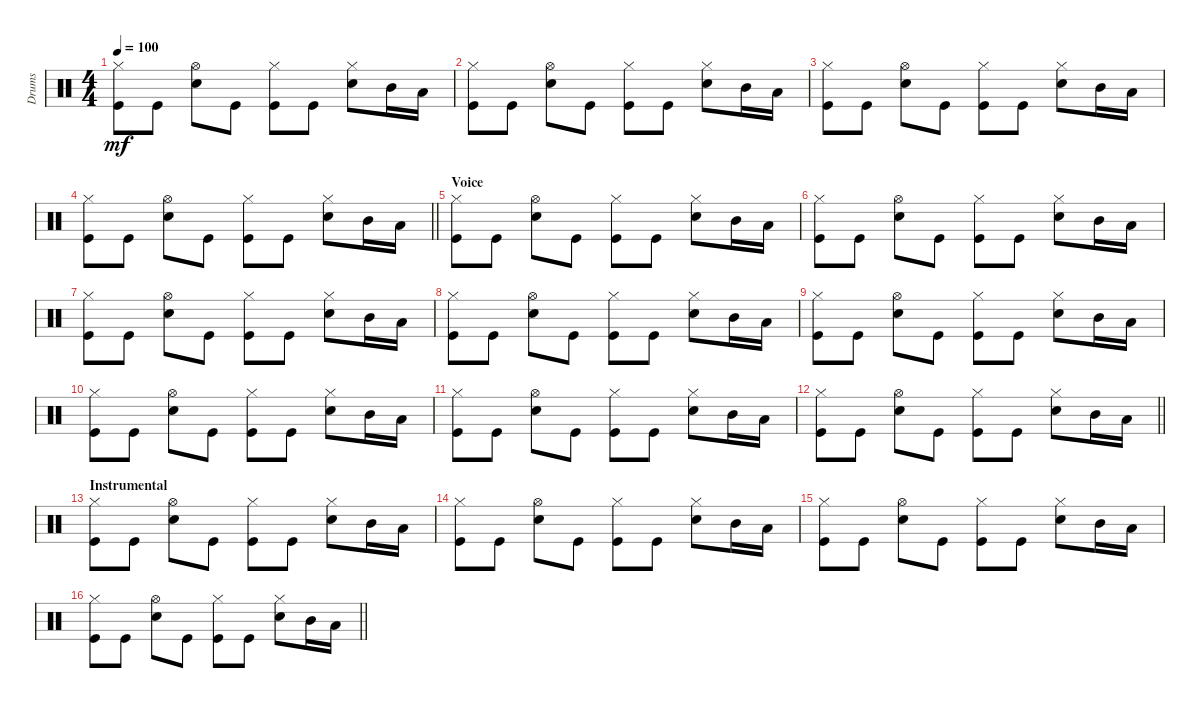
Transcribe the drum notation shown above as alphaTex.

\track ("Drums" "Drums") {instrument percussion}
\staff {score}
\articulation defaults
\ts (4 4)
\tempo 100
\clef neutral
\ks c
("Kick (hit)" "Hi-Hat (closed)").8{dy mf} "Kick (hit)".8 ("Electric Snare (hit)" "Hi-Hat (open)").8 "Kick (hit)".8 ("Kick (hit)" "Hi-Hat (closed)").8 "Kick (hit)".8 ("Electric Snare (hit)" "Hi-Hat (closed)").8 "Mid Tom (hit)".16 "Low Tom (hit)".16 |
("Kick (hit)" "Hi-Hat (closed)").8 "Kick (hit)".8 ("Electric Snare (hit)" "Hi-Hat (open)").8 "Kick (hit)".8 ("Kick (hit)" "Hi-Hat (closed)").8 "Kick (hit)".8 ("Electric Snare (hit)" "Hi-Hat (closed)").8 "Mid Tom (hit)".16 "Low Tom (hit)".16 |
("Kick (hit)" "Hi-Hat (closed)").8 "Kick (hit)".8 ("Electric Snare (hit)" "Hi-Hat (open)").8 "Kick (hit)".8 ("Kick (hit)" "Hi-Hat (closed)").8 "Kick (hit)".8 ("Electric Snare (hit)" "Hi-Hat (closed)").8 "Mid Tom (hit)".16 "Low Tom (hit)".16 |
\barLineRight lightlight
("Kick (hit)" "Hi-Hat (closed)").8 "Kick (hit)".8 ("Electric Snare (hit)" "Hi-Hat (open)").8 "Kick (hit)".8 ("Kick (hit)" "Hi-Hat (closed)").8 "Kick (hit)".8 ("Electric Snare (hit)" "Hi-Hat (closed)").8 "Mid Tom (hit)".16 "Low Tom (hit)".16 |
\section ("" "Voice")
("Kick (hit)" "Hi-Hat (closed)").8 "Kick (hit)".8 ("Electric Snare (hit)" "Hi-Hat (open)").8 "Kick (hit)".8 ("Kick (hit)" "Hi-Hat (closed)").8 "Kick (hit)".8 ("Electric Snare (hit)" "Hi-Hat (closed)").8 "Mid Tom (hit)".16 "Low Tom (hit)".16 |
("Kick (hit)" "Hi-Hat (closed)").8 "Kick (hit)".8 ("Electric Snare (hit)" "Hi-Hat (open)").8 "Kick (hit)".8 ("Kick (hit)" "Hi-Hat (closed)").8 "Kick (hit)".8 ("Electric Snare (hit)" "Hi-Hat (closed)").8 "Mid Tom (hit)".16 "Low Tom (hit)".16 |
("Kick (hit)" "Hi-Hat (closed)").8 "Kick (hit)".8 ("Electric Snare (hit)" "Hi-Hat (open)").8 "Kick (hit)".8 ("Kick (hit)" "Hi-Hat (closed)").8 "Kick (hit)".8 ("Electric Snare (hit)" "Hi-Hat (closed)").8 "Mid Tom (hit)".16 "Low Tom (hit)".16 |
("Kick (hit)" "Hi-Hat (closed)").8 "Kick (hit)".8 ("Electric Snare (hit)" "Hi-Hat (open)").8 "Kick (hit)".8 ("Kick (hit)" "Hi-Hat (closed)").8 "Kick (hit)".8 ("Electric Snare (hit)" "Hi-Hat (closed)").8 "Mid Tom (hit)".16 "Low Tom (hit)".16 |
("Kick (hit)" "Hi-Hat (closed)").8 "Kick (hit)".8 ("Electric Snare (hit)" "Hi-Hat (open)").8 "Kick (hit)".8 ("Kick (hit)" "Hi-Hat (closed)").8 "Kick (hit)".8 ("Electric Snare (hit)" "Hi-Hat (closed)").8 "Mid Tom (hit)".16 "Low Tom (hit)".16 |
("Kick (hit)" "Hi-Hat (closed)").8 "Kick (hit)".8 ("Electric Snare (hit)" "Hi-Hat (open)").8 "Kick (hit)".8 ("Kick (hit)" "Hi-Hat (closed)").8 "Kick (hit)".8 ("Electric Snare (hit)" "Hi-Hat (closed)").8 "Mid Tom (hit)".16 "Low Tom (hit)".16 |
("Kick (hit)" "Hi-Hat (closed)").8 "Kick (hit)".8 ("Electric Snare (hit)" "Hi-Hat (open)").8 "Kick (hit)".8 ("Kick (hit)" "Hi-Hat (closed)").8 "Kick (hit)".8 ("Electric Snare (hit)" "Hi-Hat (closed)").8 "Mid Tom (hit)".16 "Low Tom (hit)".16 |
\barLineRight lightlight
("Kick (hit)" "Hi-Hat (closed)").8 "Kick (hit)".8 ("Electric Snare (hit)" "Hi-Hat (open)").8 "Kick (hit)".8 ("Kick (hit)" "Hi-Hat (closed)").8 "Kick (hit)".8 ("Electric Snare (hit)" "Hi-Hat (closed)").8 "Mid Tom (hit)".16 "Low Tom (hit)".16 |
\section ("" "Instrumental")
("Kick (hit)" "Hi-Hat (closed)").8 "Kick (hit)".8 ("Electric Snare (hit)" "Hi-Hat (open)").8 "Kick (hit)".8 ("Kick (hit)" "Hi-Hat (closed)").8 "Kick (hit)".8 ("Electric Snare (hit)" "Hi-Hat (closed)").8 "Mid Tom (hit)".16 "Low Tom (hit)".16 |
("Kick (hit)" "Hi-Hat (closed)").8 "Kick (hit)".8 ("Electric Snare (hit)" "Hi-Hat (open)").8 "Kick (hit)".8 ("Kick (hit)" "Hi-Hat (closed)").8 "Kick (hit)".8 ("Electric Snare (hit)" "Hi-Hat (closed)").8 "Mid Tom (hit)".16 "Low Tom (hit)".16 |
("Kick (hit)" "Hi-Hat (closed)").8 "Kick (hit)".8 ("Electric Snare (hit)" "Hi-Hat (open)").8 "Kick (hit)".8 ("Kick (hit)" "Hi-Hat (closed)").8 "Kick (hit)".8 ("Electric Snare (hit)" "Hi-Hat (closed)").8 "Mid Tom (hit)".16 "Low Tom (hit)".16 |
\barLineRight lightlight
("Kick (hit)" "Hi-Hat (closed)").8 "Kick (hit)".8 ("Electric Snare (hit)" "Hi-Hat (open)").8 "Kick (hit)".8 ("Kick (hit)" "Hi-Hat (closed)").8 "Kick (hit)".8 ("Electric Snare (hit)" "Hi-Hat (closed)").8 "Mid Tom (hit)".16 "Low Tom (hit)".16
